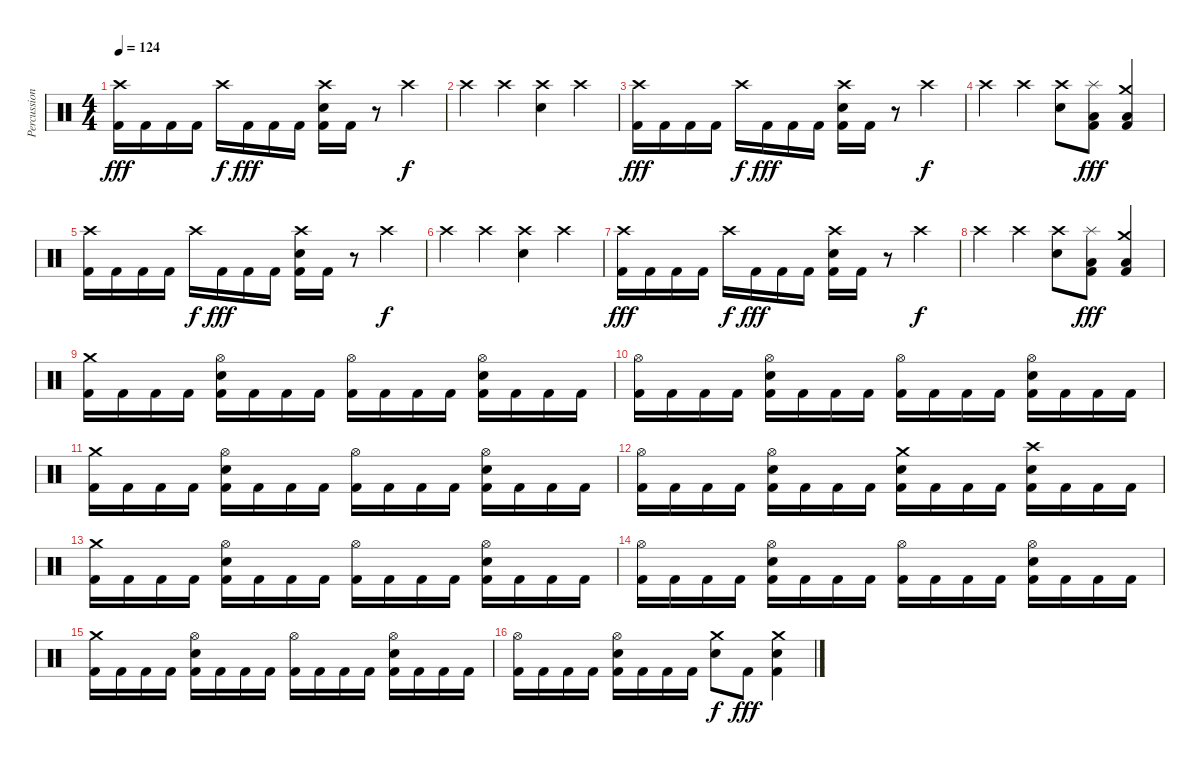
\track ("Percussion" "Percussion") {instrument percussion}
\staff {score}
\articulation defaults
\ts (4 4)
\tempo 124
\clef neutral
\ks c
("Crash high (hit)" "Kick (hit) 2").16{dy fff} "Kick (hit) 2".16 "Kick (hit) 2".16 "Kick (hit) 2".16 "Crash high (hit)".16{dy f} "Kick (hit) 2".16{dy fff} "Kick (hit) 2".16 "Kick (hit) 2".16 ("Crash high (hit)" "Snare (hit) 2" "Kick (hit) 2").16 "Kick (hit) 2".16 r.8 "Crash high (hit)".4{dy f} |
"Crash high (hit)".4 "Crash high (hit)".4 ("Crash high (hit)" "Snare (hit) 2").4 "Crash high (hit)".4 |
("Crash high (hit)" "Kick (hit) 2").16{dy fff} "Kick (hit) 2".16 "Kick (hit) 2".16 "Kick (hit) 2".16 "Crash high (hit)".16{dy f} "Kick (hit) 2".16{dy fff} "Kick (hit) 2".16 "Kick (hit) 2".16 ("Crash high (hit)" "Snare (hit) 2" "Kick (hit) 2").16 "Kick (hit) 2".16 r.8 "Crash high (hit)".4{dy f} |
"Crash high (hit)".4 "Crash high (hit)".4 ("Crash high (hit)" "Snare (hit) 2").8 ("Splash (hit)" "Low Tom (hit)" "Kick (hit) 2").8{dy fff} ("Crash medium (hit)" "Low Floor Tom (hit)" "Kick (hit) 2").4 |
("Crash high (hit)" "Kick (hit) 2").16 "Kick (hit) 2".16 "Kick (hit) 2".16 "Kick (hit) 2".16 "Crash high (hit)".16{dy f} "Kick (hit) 2".16{dy fff} "Kick (hit) 2".16 "Kick (hit) 2".16 ("Crash high (hit)" "Snare (hit) 2" "Kick (hit) 2").16 "Kick (hit) 2".16 r.8 "Crash high (hit)".4{dy f} |
"Crash high (hit)".4 "Crash high (hit)".4 ("Crash high (hit)" "Snare (hit) 2").4 "Crash high (hit)".4 |
("Crash high (hit)" "Kick (hit) 2").16{dy fff} "Kick (hit) 2".16 "Kick (hit) 2".16 "Kick (hit) 2".16 "Crash high (hit)".16{dy f} "Kick (hit) 2".16{dy fff} "Kick (hit) 2".16 "Kick (hit) 2".16 ("Crash high (hit)" "Snare (hit) 2" "Kick (hit) 2").16 "Kick (hit) 2".16 r.8 "Crash high (hit)".4{dy f} |
"Crash high (hit)".4 "Crash high (hit)".4 ("Crash high (hit)" "Snare (hit) 2").8 ("Splash (hit)" "Low Tom (hit)" "Kick (hit) 2").8{dy fff} ("Crash medium (hit)" "Low Floor Tom (hit)" "Kick (hit) 2").4 |
("Crash medium (hit)" "Kick (hit) 2").16 "Kick (hit) 2".16 "Kick (hit) 2".16 "Kick (hit) 2".16 ("Hi-Hat (open)" "Snare (hit) 2" "Kick (hit) 2").16 "Kick (hit) 2".16 "Kick (hit) 2".16 "Kick (hit) 2".16 ("Hi-Hat (open)" "Kick (hit) 2").16 "Kick (hit) 2".16 "Kick (hit) 2".16 "Kick (hit) 2".16 ("Hi-Hat (open)" "Snare (hit) 2" "Kick (hit) 2").16 "Kick (hit) 2".16 "Kick (hit) 2".16 "Kick (hit) 2".16 |
("Hi-Hat (open)" "Kick (hit) 2").16 "Kick (hit) 2".16 "Kick (hit) 2".16 "Kick (hit) 2".16 ("Hi-Hat (open)" "Snare (hit) 2" "Kick (hit) 2").16 "Kick (hit) 2".16 "Kick (hit) 2".16 "Kick (hit) 2".16 ("Hi-Hat (open)" "Kick (hit) 2").16 "Kick (hit) 2".16 "Kick (hit) 2".16 "Kick (hit) 2".16 ("Hi-Hat (open)" "Snare (hit) 2" "Kick (hit) 2").16 "Kick (hit) 2".16 "Kick (hit) 2".16 "Kick (hit) 2".16 |
("Crash medium (hit)" "Kick (hit) 2").16 "Kick (hit) 2".16 "Kick (hit) 2".16 "Kick (hit) 2".16 ("Hi-Hat (open)" "Snare (hit) 2" "Kick (hit) 2").16 "Kick (hit) 2".16 "Kick (hit) 2".16 "Kick (hit) 2".16 ("Hi-Hat (open)" "Kick (hit) 2").16 "Kick (hit) 2".16 "Kick (hit) 2".16 "Kick (hit) 2".16 ("Hi-Hat (open)" "Snare (hit) 2" "Kick (hit) 2").16 "Kick (hit) 2".16 "Kick (hit) 2".16 "Kick (hit) 2".16 |
("Hi-Hat (open)" "Kick (hit) 2").16 "Kick (hit) 2".16 "Kick (hit) 2".16 "Kick (hit) 2".16 ("Hi-Hat (open)" "Snare (hit) 2" "Kick (hit) 2").16 "Kick (hit) 2".16 "Kick (hit) 2".16 "Kick (hit) 2".16 ("Crash medium (hit)" "Snare (hit) 2" "Kick (hit) 2").16 "Kick (hit) 2".16 "Kick (hit) 2".16 "Kick (hit) 2".16 ("Crash high (hit)" "Snare (hit) 2" "Kick (hit) 2").16 "Kick (hit) 2".16 "Kick (hit) 2".16 "Kick (hit) 2".16 |
("Crash medium (hit)" "Kick (hit) 2").16 "Kick (hit) 2".16 "Kick (hit) 2".16 "Kick (hit) 2".16 ("Hi-Hat (open)" "Snare (hit) 2" "Kick (hit) 2").16 "Kick (hit) 2".16 "Kick (hit) 2".16 "Kick (hit) 2".16 ("Hi-Hat (open)" "Kick (hit) 2").16 "Kick (hit) 2".16 "Kick (hit) 2".16 "Kick (hit) 2".16 ("Hi-Hat (open)" "Snare (hit) 2" "Kick (hit) 2").16 "Kick (hit) 2".16 "Kick (hit) 2".16 "Kick (hit) 2".16 |
("Hi-Hat (open)" "Kick (hit) 2").16 "Kick (hit) 2".16 "Kick (hit) 2".16 "Kick (hit) 2".16 ("Hi-Hat (open)" "Snare (hit) 2" "Kick (hit) 2").16 "Kick (hit) 2".16 "Kick (hit) 2".16 "Kick (hit) 2".16 ("Hi-Hat (open)" "Kick (hit) 2").16 "Kick (hit) 2".16 "Kick (hit) 2".16 "Kick (hit) 2".16 ("Hi-Hat (open)" "Snare (hit) 2" "Kick (hit) 2").16 "Kick (hit) 2".16 "Kick (hit) 2".16 "Kick (hit) 2".16 |
("Crash medium (hit)" "Kick (hit) 2").16 "Kick (hit) 2".16 "Kick (hit) 2".16 "Kick (hit) 2".16 ("Hi-Hat (open)" "Snare (hit) 2" "Kick (hit) 2").16 "Kick (hit) 2".16 "Kick (hit) 2".16 "Kick (hit) 2".16 ("Hi-Hat (open)" "Kick (hit) 2").16 "Kick (hit) 2".16 "Kick (hit) 2".16 "Kick (hit) 2".16 ("Hi-Hat (open)" "Snare (hit) 2" "Kick (hit) 2").16 "Kick (hit) 2".16 "Kick (hit) 2".16 "Kick (hit) 2".16 |
("Hi-Hat (open)" "Kick (hit) 2").16 "Kick (hit) 2".16 "Kick (hit) 2".16 "Kick (hit) 2".16 ("Hi-Hat (open)" "Snare (hit) 2" "Kick (hit) 2").16 "Kick (hit) 2".16 "Kick (hit) 2".16 "Kick (hit) 2".16 ("Crash medium (hit)" "Snare (hit) 2").8{dy f} "Kick (hit) 2".8{dy fff} ("Crash medium (hit)" "Snare (hit) 2" "Kick (hit) 2").4
